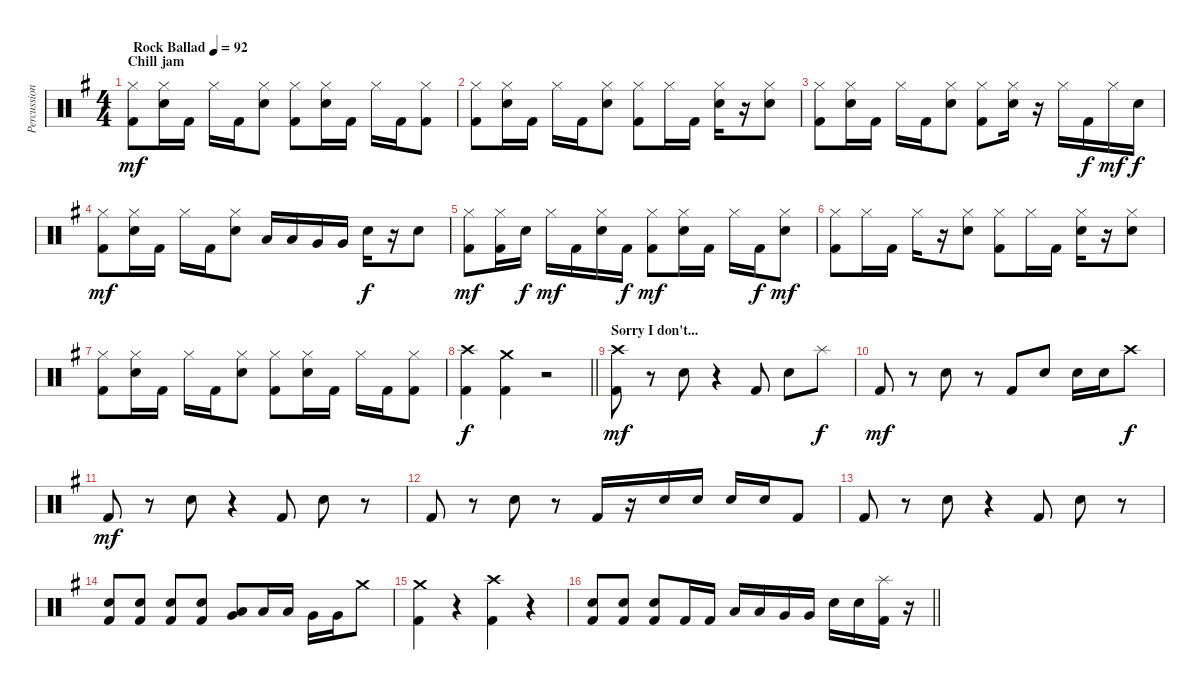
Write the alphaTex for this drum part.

\track ("Percussion" "Percussion") {instrument percussion}
\staff {score}
\articulation defaults
\ts (4 4)
\section ("" "Chill jam")
\tempo (92 "Rock Ballad")
\clef neutral
\ks eminor
("Hi-Hat (closed)" "Kick (hit) 2").8{dy mf} ("Hi-Hat (closed)" "Electric Snare (hit)").16 "Kick (hit) 2".16 "Hi-Hat (closed)".16 "Kick (hit) 2".16 ("Hi-Hat (closed)" "Electric Snare (hit)").8 ("Hi-Hat (closed)" "Kick (hit) 2").8 ("Hi-Hat (closed)" "Electric Snare (hit)").16 "Kick (hit) 2".16 "Hi-Hat (closed)".16 "Kick (hit) 2".16 ("Hi-Hat (closed)" "Kick (hit) 2").8 |
("Hi-Hat (closed)" "Kick (hit) 2").8 ("Hi-Hat (closed)" "Electric Snare (hit)").16 "Kick (hit) 2".16 "Hi-Hat (closed)".16 "Kick (hit) 2".16 ("Hi-Hat (closed)" "Electric Snare (hit)").8 ("Hi-Hat (closed)" "Kick (hit) 2").8 "Hi-Hat (closed)".16 "Kick (hit) 2".16 ("Hi-Hat (closed)" "Electric Snare (hit)").16 r.16 ("Hi-Hat (closed)" "Electric Snare (hit)").8 |
("Hi-Hat (closed)" "Kick (hit) 2").8 ("Hi-Hat (closed)" "Electric Snare (hit)").16 "Kick (hit) 2".16 "Hi-Hat (closed)".16 "Kick (hit) 2".16 ("Hi-Hat (closed)" "Electric Snare (hit)").8 ("Hi-Hat (closed)" "Kick (hit) 2").8 ("Hi-Hat (closed)" "Electric Snare (hit)").16 r.16 "Hi-Hat (closed)".16 "Kick (hit) 2".16{dy f} "Hi-Hat (closed)".16{dy mf} "Electric Snare (hit)".16{dy f} |
("Hi-Hat (closed)" "Kick (hit) 2").8{dy mf} ("Hi-Hat (closed)" "Electric Snare (hit)").16 "Kick (hit) 2".16 "Hi-Hat (closed)".16 "Kick (hit) 2".16 ("Hi-Hat (closed)" "Electric Snare (hit)").8 "Low Tom (hit)".16 "Low Tom (hit)".16 "Very Low Tom (hit)".16 "Very Low Tom (hit)".16 "Electric Snare (hit)".16{dy f} r.16 "Electric Snare (hit)".8 |
("Hi-Hat (closed)" "Kick (hit) 2").8{dy mf} ("Hi-Hat (closed)" "Kick (hit) 2").16 "Electric Snare (hit)".16{dy f} "Hi-Hat (closed)".16{dy mf} "Kick (hit) 2".16 ("Hi-Hat (closed)" "Electric Snare (hit)").16 "Kick (hit) 2".16{dy f} ("Hi-Hat (closed)" "Kick (hit) 2").8{dy mf} ("Hi-Hat (closed)" "Electric Snare (hit)").16 "Kick (hit) 2".16 "Hi-Hat (closed)".16 "Kick (hit) 2".16{dy f} ("Hi-Hat (closed)" "Electric Snare (hit)").8{dy mf} |
("Hi-Hat (closed)" "Kick (hit) 2").8 "Hi-Hat (closed)".16 "Kick (hit) 2".16 "Hi-Hat (closed)".16 r.16 ("Hi-Hat (closed)" "Electric Snare (hit)").8 ("Hi-Hat (closed)" "Kick (hit) 2").8 "Hi-Hat (closed)".16 "Kick (hit) 2".16 ("Hi-Hat (closed)" "Electric Snare (hit)").16 r.16 ("Hi-Hat (closed)" "Electric Snare (hit)").8 |
("Hi-Hat (closed)" "Kick (hit) 2").8 ("Hi-Hat (closed)" "Electric Snare (hit)").16 "Kick (hit) 2".16 "Hi-Hat (closed)".16 "Kick (hit) 2".16 ("Hi-Hat (closed)" "Electric Snare (hit)").8 ("Hi-Hat (closed)" "Kick (hit) 2").8 ("Hi-Hat (closed)" "Electric Snare (hit)").16 "Kick (hit) 2".16 "Hi-Hat (closed)".16 "Kick (hit) 2".16 ("Hi-Hat (closed)" "Kick (hit) 2").8 |
\barLineRight lightlight
("Crash high (hit)" "Kick (hit) 2").4{dy f} ("Crash medium (hit)" "Kick (hit) 2").4 r.2 |
\section ("" "Sorry I don't...")
("Kick (hit) 2" "Crash high (hit)").8{dy mf} r.8 "Electric Snare (hit)".8 r.4 "Kick (hit) 2".8 "Electric Snare (hit)".8 "Splash (hit)".8{dy f} |
"Kick (hit) 2".8{dy mf} r.8 "Electric Snare (hit)".8 r.8 "Kick (hit) 2".8 "Electric Snare (hit)".8 "Electric Snare (hit)".16 "Electric Snare (hit)".16 "Crash high (hit)".8{dy f} |
"Kick (hit) 2".8{dy mf} r.8 "Electric Snare (hit)".8 r.4 "Kick (hit) 2".8 "Electric Snare (hit)".8 r.8 |
"Kick (hit) 2".8 r.8 "Electric Snare (hit)".8 r.8 "Kick (hit) 2".16 r.16 "Electric Snare (hit)".16 "Electric Snare (hit)".16 "Electric Snare (hit)".16 "Electric Snare (hit)".16 "Kick (hit) 2".8 |
"Kick (hit) 2".8 r.8 "Electric Snare (hit)".8 r.4 "Kick (hit) 2".8 "Electric Snare (hit)".8 r.8 |
("Electric Snare (hit)" "Kick (hit) 2").8 ("Electric Snare (hit)" "Kick (hit) 2").8 ("Electric Snare (hit)" "Kick (hit) 2").8 ("Electric Snare (hit)" "Kick (hit) 2").8 ("Low Tom (hit)" "Very Low Tom (hit)").8 "Low Tom (hit)".16 "Low Tom (hit)".16 "Very Low Tom (hit)".16 "Very Low Tom (hit)".16 "Crash medium (hit)".8 |
("Crash medium (hit)" "Kick (hit) 2").4 r.4 ("Crash high (hit)" "Kick (hit) 2").4 r.4 |
\barLineRight lightlight
("Electric Snare (hit)" "Kick (hit) 2").8 ("Electric Snare (hit)" "Kick (hit) 2").8 ("Electric Snare (hit)" "Kick (hit) 2").8 "Kick (hit) 2".16 "Kick (hit) 2".16 "Low Tom (hit)".16 "Low Tom (hit)".16 "Very Low Tom (hit)".16 "Very Low Tom (hit)".16 "Electric Snare (hit)".16 "Electric Snare (hit)".16 ("Splash (hit)" "Kick (hit) 2").16 r.16
